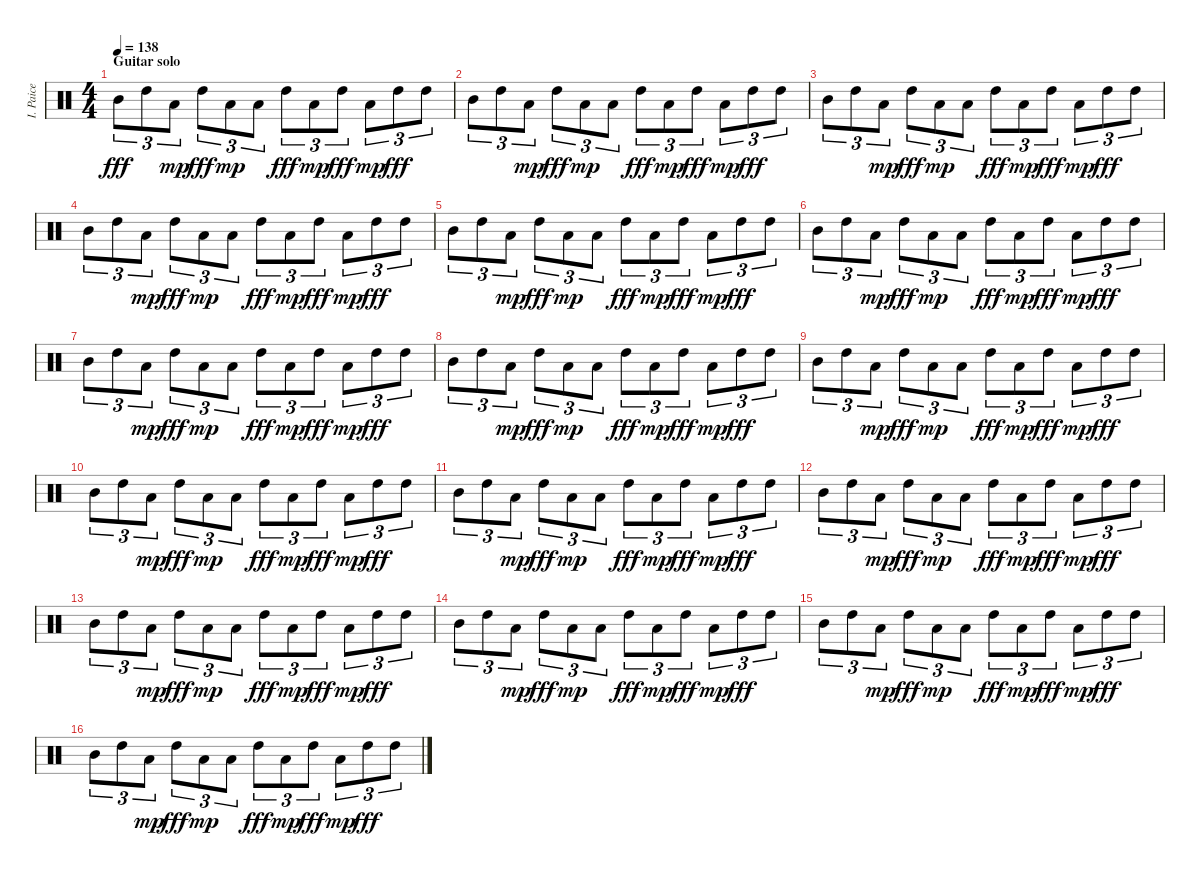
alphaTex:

\track ("I. Paice" "I. Paice") {instrument percussion}
\staff {score}
\articulation defaults
\ts (4 4)
\section ("" "Guitar solo")
\tempo 138
\clef neutral
\ks c "Mid Tom (hit)".8{tu (3 2) dy fff} "High Tom (hit)".8{tu (3 2)} "Low Tom (hit)".8{tu (3 2) dy mp} "High Tom (hit)".8{tu (3 2) dy fff} "Low Tom (hit)".8{tu (3 2) dy mp} "Low Tom (hit)".8{tu (3 2)} "High Tom (hit)".8{tu (3 2) dy fff} "Low Tom (hit)".8{tu (3 2) dy mp} "High Tom (hit)".8{tu (3 2) dy fff} "Low Tom (hit)".8{tu (3 2) dy mp} "High Tom (hit)".8{tu (3 2) dy fff} "High Tom (hit)".8{tu (3 2)}
|
"Mid Tom (hit)".8{tu (3 2)} "High Tom (hit)".8{tu (3 2)} "Low Tom (hit)".8{tu (3 2) dy mp} "High Tom (hit)".8{tu (3 2) dy fff} "Low Tom (hit)".8{tu (3 2) dy mp} "Low Tom (hit)".8{tu (3 2)} "High Tom (hit)".8{tu (3 2) dy fff} "Low Tom (hit)".8{tu (3 2) dy mp} "High Tom (hit)".8{tu (3 2) dy fff} "Low Tom (hit)".8{tu (3 2) dy mp} "High Tom (hit)".8{tu (3 2) dy fff} "High Tom (hit)".8{tu (3 2)} |
"Mid Tom (hit)".8{tu (3 2)} "High Tom (hit)".8{tu (3 2)} "Low Tom (hit)".8{tu (3 2) dy mp} "High Tom (hit)".8{tu (3 2) dy fff} "Low Tom (hit)".8{tu (3 2) dy mp} "Low Tom (hit)".8{tu (3 2)} "High Tom (hit)".8{tu (3 2) dy fff} "Low Tom (hit)".8{tu (3 2) dy mp} "High Tom (hit)".8{tu (3 2) dy fff} "Low Tom (hit)".8{tu (3 2) dy mp} "High Tom (hit)".8{tu (3 2) dy fff} "High Tom (hit)".8{tu (3 2)} |
"Mid Tom (hit)".8{tu (3 2)} "High Tom (hit)".8{tu (3 2)} "Low Tom (hit)".8{tu (3 2) dy mp} "High Tom (hit)".8{tu (3 2) dy fff} "Low Tom (hit)".8{tu (3 2) dy mp} "Low Tom (hit)".8{tu (3 2)} "High Tom (hit)".8{tu (3 2) dy fff} "Low Tom (hit)".8{tu (3 2) dy mp} "High Tom (hit)".8{tu (3 2) dy fff} "Low Tom (hit)".8{tu (3 2) dy mp} "High Tom (hit)".8{tu (3 2) dy fff} "High Tom (hit)".8{tu (3 2)} |
"Mid Tom (hit)".8{tu (3 2)} "High Tom (hit)".8{tu (3 2)} "Low Tom (hit)".8{tu (3 2) dy mp} "High Tom (hit)".8{tu (3 2) dy fff} "Low Tom (hit)".8{tu (3 2) dy mp} "Low Tom (hit)".8{tu (3 2)} "High Tom (hit)".8{tu (3 2) dy fff} "Low Tom (hit)".8{tu (3 2) dy mp} "High Tom (hit)".8{tu (3 2) dy fff} "Low Tom (hit)".8{tu (3 2) dy mp} "High Tom (hit)".8{tu (3 2) dy fff} "High Tom (hit)".8{tu (3 2)} |
"Mid Tom (hit)".8{tu (3 2)} "High Tom (hit)".8{tu (3 2)} "Low Tom (hit)".8{tu (3 2) dy mp} "High Tom (hit)".8{tu (3 2) dy fff} "Low Tom (hit)".8{tu (3 2) dy mp} "Low Tom (hit)".8{tu (3 2)} "High Tom (hit)".8{tu (3 2) dy fff} "Low Tom (hit)".8{tu (3 2) dy mp} "High Tom (hit)".8{tu (3 2) dy fff} "Low Tom (hit)".8{tu (3 2) dy mp} "High Tom (hit)".8{tu (3 2) dy fff} "High Tom (hit)".8{tu (3 2)} |
"Mid Tom (hit)".8{tu (3 2)} "High Tom (hit)".8{tu (3 2)} "Low Tom (hit)".8{tu (3 2) dy mp} "High Tom (hit)".8{tu (3 2) dy fff} "Low Tom (hit)".8{tu (3 2) dy mp} "Low Tom (hit)".8{tu (3 2)} "High Tom (hit)".8{tu (3 2) dy fff} "Low Tom (hit)".8{tu (3 2) dy mp} "High Tom (hit)".8{tu (3 2) dy fff} "Low Tom (hit)".8{tu (3 2) dy mp} "High Tom (hit)".8{tu (3 2) dy fff} "High Tom (hit)".8{tu (3 2)} |
"Mid Tom (hit)".8{tu (3 2)} "High Tom (hit)".8{tu (3 2)} "Low Tom (hit)".8{tu (3 2) dy mp} "High Tom (hit)".8{tu (3 2) dy fff} "Low Tom (hit)".8{tu (3 2) dy mp} "Low Tom (hit)".8{tu (3 2)} "High Tom (hit)".8{tu (3 2) dy fff} "Low Tom (hit)".8{tu (3 2) dy mp} "High Tom (hit)".8{tu (3 2) dy fff} "Low Tom (hit)".8{tu (3 2) dy mp} "High Tom (hit)".8{tu (3 2) dy fff} "High Tom (hit)".8{tu (3 2)} |
"Mid Tom (hit)".8{tu (3 2)} "High Tom (hit)".8{tu (3 2)} "Low Tom (hit)".8{tu (3 2) dy mp} "High Tom (hit)".8{tu (3 2) dy fff} "Low Tom (hit)".8{tu (3 2) dy mp} "Low Tom (hit)".8{tu (3 2)} "High Tom (hit)".8{tu (3 2) dy fff} "Low Tom (hit)".8{tu (3 2) dy mp} "High Tom (hit)".8{tu (3 2) dy fff} "Low Tom (hit)".8{tu (3 2) dy mp} "High Tom (hit)".8{tu (3 2) dy fff} "High Tom (hit)".8{tu (3 2)} |
"Mid Tom (hit)".8{tu (3 2)} "High Tom (hit)".8{tu (3 2)} "Low Tom (hit)".8{tu (3 2) dy mp} "High Tom (hit)".8{tu (3 2) dy fff} "Low Tom (hit)".8{tu (3 2) dy mp} "Low Tom (hit)".8{tu (3 2)} "High Tom (hit)".8{tu (3 2) dy fff} "Low Tom (hit)".8{tu (3 2) dy mp} "High Tom (hit)".8{tu (3 2) dy fff} "Low Tom (hit)".8{tu (3 2) dy mp} "High Tom (hit)".8{tu (3 2) dy fff} "High Tom (hit)".8{tu (3 2)} |
"Mid Tom (hit)".8{tu (3 2)} "High Tom (hit)".8{tu (3 2)} "Low Tom (hit)".8{tu (3 2) dy mp} "High Tom (hit)".8{tu (3 2) dy fff} "Low Tom (hit)".8{tu (3 2) dy mp} "Low Tom (hit)".8{tu (3 2)} "High Tom (hit)".8{tu (3 2) dy fff} "Low Tom (hit)".8{tu (3 2) dy mp} "High Tom (hit)".8{tu (3 2) dy fff} "Low Tom (hit)".8{tu (3 2) dy mp} "High Tom (hit)".8{tu (3 2) dy fff} "High Tom (hit)".8{tu (3 2)} |
"Mid Tom (hit)".8{tu (3 2)} "High Tom (hit)".8{tu (3 2)} "Low Tom (hit)".8{tu (3 2) dy mp} "High Tom (hit)".8{tu (3 2) dy fff} "Low Tom (hit)".8{tu (3 2) dy mp} "Low Tom (hit)".8{tu (3 2)} "High Tom (hit)".8{tu (3 2) dy fff} "Low Tom (hit)".8{tu (3 2) dy mp} "High Tom (hit)".8{tu (3 2) dy fff} "Low Tom (hit)".8{tu (3 2) dy mp} "High Tom (hit)".8{tu (3 2) dy fff} "High Tom (hit)".8{tu (3 2)} |
"Mid Tom (hit)".8{tu (3 2)} "High Tom (hit)".8{tu (3 2)} "Low Tom (hit)".8{tu (3 2) dy mp} "High Tom (hit)".8{tu (3 2) dy fff} "Low Tom (hit)".8{tu (3 2) dy mp} "Low Tom (hit)".8{tu (3 2)} "High Tom (hit)".8{tu (3 2) dy fff} "Low Tom (hit)".8{tu (3 2) dy mp} "High Tom (hit)".8{tu (3 2) dy fff} "Low Tom (hit)".8{tu (3 2) dy mp} "High Tom (hit)".8{tu (3 2) dy fff} "High Tom (hit)".8{tu (3 2)} |
"Mid Tom (hit)".8{tu (3 2)} "High Tom (hit)".8{tu (3 2)} "Low Tom (hit)".8{tu (3 2) dy mp} "High Tom (hit)".8{tu (3 2) dy fff} "Low Tom (hit)".8{tu (3 2) dy mp} "Low Tom (hit)".8{tu (3 2)} "High Tom (hit)".8{tu (3 2) dy fff} "Low Tom (hit)".8{tu (3 2) dy mp} "High Tom (hit)".8{tu (3 2) dy fff} "Low Tom (hit)".8{tu (3 2) dy mp} "High Tom (hit)".8{tu (3 2) dy fff} "High Tom (hit)".8{tu (3 2)} |
"Mid Tom (hit)".8{tu (3 2)} "High Tom (hit)".8{tu (3 2)} "Low Tom (hit)".8{tu (3 2) dy mp} "High Tom (hit)".8{tu (3 2) dy fff} "Low Tom (hit)".8{tu (3 2) dy mp} "Low Tom (hit)".8{tu (3 2)} "High Tom (hit)".8{tu (3 2) dy fff} "Low Tom (hit)".8{tu (3 2) dy mp} "High Tom (hit)".8{tu (3 2) dy fff} "Low Tom (hit)".8{tu (3 2) dy mp} "High Tom (hit)".8{tu (3 2) dy fff} "High Tom (hit)".8{tu (3 2)} |
"Mid Tom (hit)".8{tu (3 2)} "High Tom (hit)".8{tu (3 2)} "Low Tom (hit)".8{tu (3 2) dy mp} "High Tom (hit)".8{tu (3 2) dy fff} "Low Tom (hit)".8{tu (3 2) dy mp} "Low Tom (hit)".8{tu (3 2)} "High Tom (hit)".8{tu (3 2) dy fff} "Low Tom (hit)".8{tu (3 2) dy mp} "High Tom (hit)".8{tu (3 2) dy fff} "Low Tom (hit)".8{tu (3 2) dy mp} "High Tom (hit)".8{tu (3 2) dy fff} "High Tom (hit)".8{tu (3 2)}
